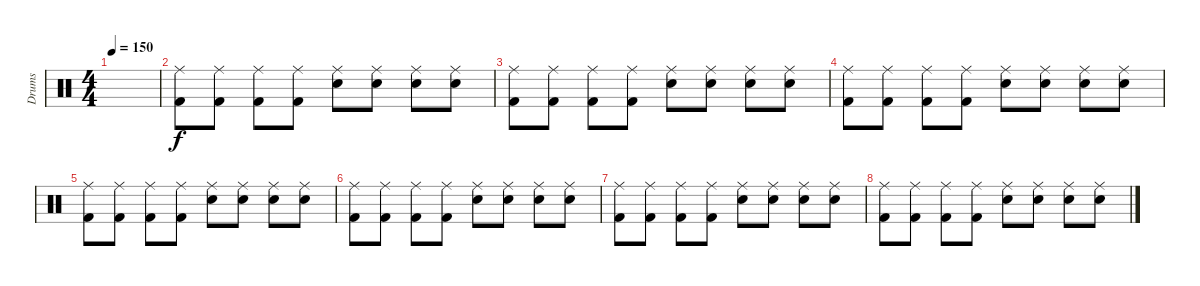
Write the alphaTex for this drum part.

\track ("Drums" "Drums") {instrument percussion}
\staff {score}
\articulation defaults
\ts (4 4)
\tempo 150
\clef neutral
\ks c
|
("Ride (middle)" "Kick (hit) 2").8 ("Ride (middle)" "Kick (hit) 2").8 ("Ride (middle)" "Kick (hit) 2").8 ("Ride (middle)" "Kick (hit) 2").8 ("Ride (middle)" "Snare (hit) 2").8 ("Ride (middle)" "Snare (hit) 2").8 ("Ride (middle)" "Snare (hit) 2").8 ("Ride (middle)" "Snare (hit) 2").8 |
("Ride (middle)" "Kick (hit) 2").8 ("Ride (middle)" "Kick (hit) 2").8 ("Ride (middle)" "Kick (hit) 2").8 ("Ride (middle)" "Kick (hit) 2").8 ("Ride (middle)" "Snare (hit) 2").8 ("Ride (middle)" "Snare (hit) 2").8 ("Ride (middle)" "Snare (hit) 2").8 ("Ride (middle)" "Snare (hit) 2").8 |
("Ride (middle)" "Kick (hit) 2").8 ("Ride (middle)" "Kick (hit) 2").8 ("Ride (middle)" "Kick (hit) 2").8 ("Ride (middle)" "Kick (hit) 2").8 ("Ride (middle)" "Snare (hit) 2").8 ("Ride (middle)" "Snare (hit) 2").8 ("Ride (middle)" "Snare (hit) 2").8 ("Ride (middle)" "Snare (hit) 2").8 |
("Ride (middle)" "Kick (hit) 2").8 ("Ride (middle)" "Kick (hit) 2").8 ("Ride (middle)" "Kick (hit) 2").8 ("Ride (middle)" "Kick (hit) 2").8 ("Ride (middle)" "Snare (hit) 2").8 ("Ride (middle)" "Snare (hit) 2").8 ("Ride (middle)" "Snare (hit) 2").8 ("Ride (middle)" "Snare (hit) 2").8 |
("Ride (middle)" "Kick (hit) 2").8 ("Ride (middle)" "Kick (hit) 2").8 ("Ride (middle)" "Kick (hit) 2").8 ("Ride (middle)" "Kick (hit) 2").8 ("Ride (middle)" "Snare (hit) 2").8 ("Ride (middle)" "Snare (hit) 2").8 ("Ride (middle)" "Snare (hit) 2").8 ("Ride (middle)" "Snare (hit) 2").8 |
("Ride (middle)" "Kick (hit) 2").8 ("Ride (middle)" "Kick (hit) 2").8 ("Ride (middle)" "Kick (hit) 2").8 ("Ride (middle)" "Kick (hit) 2").8 ("Ride (middle)" "Snare (hit) 2").8 ("Ride (middle)" "Snare (hit) 2").8 ("Ride (middle)" "Snare (hit) 2").8 ("Ride (middle)" "Snare (hit) 2").8 |
("Ride (middle)" "Kick (hit) 2").8 ("Ride (middle)" "Kick (hit) 2").8 ("Ride (middle)" "Kick (hit) 2").8 ("Ride (middle)" "Kick (hit) 2").8 ("Ride (middle)" "Snare (hit) 2").8 ("Ride (middle)" "Snare (hit) 2").8 ("Ride (middle)" "Snare (hit) 2").8 ("Ride (middle)" "Snare (hit) 2").8
